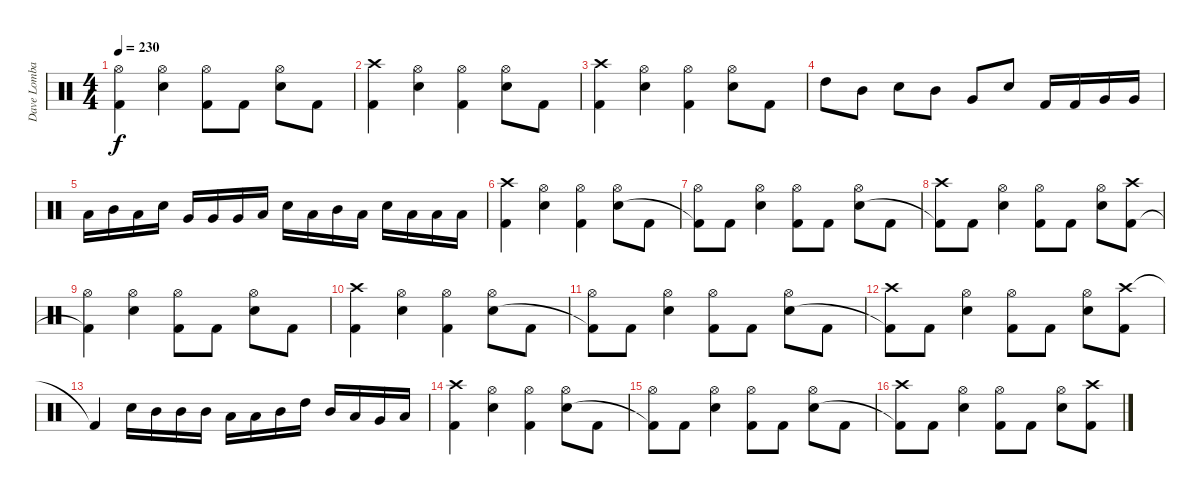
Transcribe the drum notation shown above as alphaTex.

\track ("Dave Lombardo" "Dave Lomba") {instrument percussion}
\staff {score}
\articulation defaults
\ts (4 4)
\tempo 230
\clef neutral
\ks c
("Hi-Hat (open)" "Kick (hit) 2"{t}).4{dy f} ("Hi-Hat (open)" "Snare (hit) 2").4 ("Hi-Hat (open)" "Kick (hit) 2").8 "Kick (hit) 2".8 ("Hi-Hat (open)" "Snare (hit) 2").8 "Kick (hit) 2".8 |
("Crash high (hit)" "Kick (hit) 2").4 ("Hi-Hat (open)" "Snare (hit) 2").4 ("Hi-Hat (open)" "Kick (hit) 2").4 ("Hi-Hat (open)" "Snare (hit) 2").8 "Kick (hit) 2".8 |
("Crash high (hit)" "Kick (hit) 2").4 ("Hi-Hat (open)" "Snare (hit) 2").4 ("Hi-Hat (open)" "Kick (hit) 2").4 ("Hi-Hat (open)" "Snare (hit) 2").8 "Kick (hit) 2".8 |
"High Tom (hit)".8 "Mid Tom (hit)".8 "Snare (hit) 2".8 "Mid Tom (hit)".8 "Very Low Tom (hit)".8 "Snare (hit) 2".8 "Kick (hit) 2".16 "Kick (hit) 2".16 "Very Low Tom (hit)".16 "Very Low Tom (hit)".16 |
"Low Tom (hit)".16 "Mid Tom (hit)".16 "Low Tom (hit)".16 "Snare (hit) 2".16 "Very Low Tom (hit)".16 "Very Low Tom (hit)".16 "Very Low Tom (hit)".16 "Low Floor Tom (hit)".16 "Snare (hit) 2".16 "Low Floor Tom (hit)".16 "Mid Tom (hit)".16 "Low Tom (hit)".16 "Snare (hit) 2".16 "Low Floor Tom (hit)".16 "Low Floor Tom (hit)".16 "Low Floor Tom (hit)".16 |
("Crash high (hit)" "Kick (hit) 2").4 ("Hi-Hat (open)" "Snare (hit) 2").4 ("Hi-Hat (open)" "Kick (hit) 2").4 ("Hi-Hat (open)" "Snare (hit) 2").8 "Kick (hit) 2".8 |
("Hi-Hat (open)" "Kick (hit) 2"{t}).8 "Kick (hit) 2".8 ("Hi-Hat (open)" "Snare (hit) 2").4 ("Hi-Hat (open)" "Kick (hit) 2").8 "Kick (hit) 2".8 ("Hi-Hat (open)" "Snare (hit) 2").8 "Kick (hit) 2".8 |
("Crash high (hit)" "Kick (hit) 2"{t}).8 "Kick (hit) 2".8 ("Hi-Hat (open)" "Snare (hit) 2").4 ("Hi-Hat (open)" "Kick (hit) 2").8 "Kick (hit) 2".8 ("Hi-Hat (open)" "Snare (hit) 2").8 ("Crash high (hit)" "Kick (hit) 2").8 |
("Hi-Hat (open)" "Kick (hit) 2"{t}).4 ("Hi-Hat (open)" "Snare (hit) 2").4 ("Hi-Hat (open)" "Kick (hit) 2").8 "Kick (hit) 2".8 ("Hi-Hat (open)" "Snare (hit) 2").8 "Kick (hit) 2".8 |
("Crash high (hit)" "Kick (hit) 2").4 ("Hi-Hat (open)" "Snare (hit) 2").4 ("Hi-Hat (open)" "Kick (hit) 2").4 ("Hi-Hat (open)" "Snare (hit) 2").8 "Kick (hit) 2".8 |
("Hi-Hat (open)" "Kick (hit) 2"{t}).8 "Kick (hit) 2".8 ("Hi-Hat (open)" "Snare (hit) 2").4 ("Hi-Hat (open)" "Kick (hit) 2").8 "Kick (hit) 2".8 ("Hi-Hat (open)" "Snare (hit) 2").8 "Kick (hit) 2".8 |
("Crash high (hit)" "Kick (hit) 2"{t}).8 "Kick (hit) 2".8 ("Hi-Hat (open)" "Snare (hit) 2").4 ("Hi-Hat (open)" "Kick (hit) 2").8 "Kick (hit) 2".8 ("Hi-Hat (open)" "Snare (hit) 2").8 ("Crash high (hit)" "Kick (hit) 2").8 |
"Kick (hit) 2"{t}.4 "Snare (hit) 2".16 "Mid Tom (hit)".16 "Mid Tom (hit)".16 "Mid Tom (hit)".16 "Low Tom (hit)".16 "Low Tom (hit)".16 "Mid Tom (hit)".16 "High Tom (hit)".16 "Mid Tom (hit)".16 "Low Tom (hit)".16 "Very Low Tom (hit)".16 "Low Floor Tom (hit)".16 |
("Crash high (hit)" "Kick (hit) 2").4 ("Hi-Hat (open)" "Snare (hit) 2").4 ("Hi-Hat (open)" "Kick (hit) 2").4 ("Hi-Hat (open)" "Snare (hit) 2").8 "Kick (hit) 2".8 |
("Hi-Hat (open)" "Kick (hit) 2"{t}).8 "Kick (hit) 2".8 ("Hi-Hat (open)" "Snare (hit) 2").4 ("Hi-Hat (open)" "Kick (hit) 2").8 "Kick (hit) 2".8 ("Hi-Hat (open)" "Snare (hit) 2").8 "Kick (hit) 2".8 |
("Crash high (hit)" "Kick (hit) 2"{t}).8 "Kick (hit) 2".8 ("Hi-Hat (open)" "Snare (hit) 2").4 ("Hi-Hat (open)" "Kick (hit) 2").8 "Kick (hit) 2".8 ("Hi-Hat (open)" "Snare (hit) 2").8 ("Crash high (hit)" "Kick (hit) 2").8
